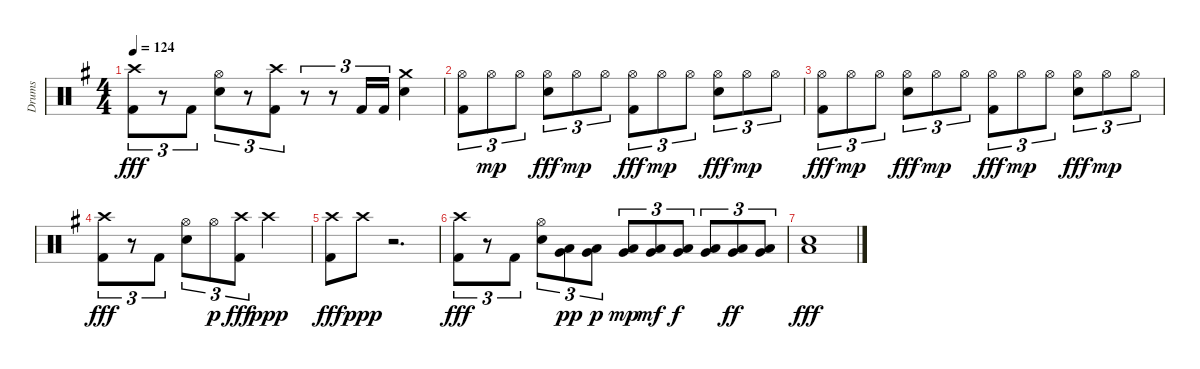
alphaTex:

\track ("Drums" "Drums") {instrument percussion}
\staff {score}
\articulation defaults
\ts (4 4)
\tempo 124
\clef neutral
\ks g
("Crash high (hit)" "Kick (hit) 2").8{tu (3 2) dy fff} r.8{tu (3 2)} "Kick (hit) 2".8{tu (3 2)} ("Hi-Hat (open)" "Electric Snare (hit)").8{tu (3 2)} r.8{tu (3 2)} ("Crash high (hit)" "Kick (hit) 2").8{tu (3 2)} r.8{tu (3 2)} r.8{tu (3 2)} "Kick (hit) 2".16{tu (3 2)} "Kick (hit) 2".16{tu (3 2)} ("Crash medium (hit)" "Electric Snare (hit)").4 |
("Hi-Hat (open)" "Kick (hit) 2").8{tu (3 2)} "Hi-Hat (open)".8{tu (3 2) dy mp} "Hi-Hat (open)".8{tu (3 2)} ("Hi-Hat (open)" "Electric Snare (hit)").8{tu (3 2) dy fff} "Hi-Hat (open)".8{tu (3 2) dy mp} "Hi-Hat (open)".8{tu (3 2)} ("Hi-Hat (open)" "Kick (hit) 2").8{tu (3 2) dy fff} "Hi-Hat (open)".8{tu (3 2) dy mp} "Hi-Hat (open)".8{tu (3 2)} ("Hi-Hat (open)" "Electric Snare (hit)").8{tu (3 2) dy fff} "Hi-Hat (open)".8{tu (3 2) dy mp} "Hi-Hat (open)".8{tu (3 2)} |
("Hi-Hat (open)" "Kick (hit) 2").8{tu (3 2) dy fff} "Hi-Hat (open)".8{tu (3 2) dy mp} "Hi-Hat (open)".8{tu (3 2)} ("Hi-Hat (open)" "Electric Snare (hit)").8{tu (3 2) dy fff} "Hi-Hat (open)".8{tu (3 2) dy mp} "Hi-Hat (open)".8{tu (3 2)} ("Hi-Hat (open)" "Kick (hit) 2").8{tu (3 2) dy fff} "Hi-Hat (open)".8{tu (3 2) dy mp} "Hi-Hat (open)".8{tu (3 2)} ("Hi-Hat (open)" "Electric Snare (hit)").8{tu (3 2) dy fff} "Hi-Hat (open)".8{tu (3 2) dy mp} "Hi-Hat (open)".8{tu (3 2)} |
("Crash high (hit)" "Kick (hit) 2").8{tu (3 2) dy fff} r.8{tu (3 2)} "Kick (hit) 2".8{tu (3 2)} ("Hi-Hat (open)" "Electric Snare (hit)").8{tu (3 2)} "Hi-Hat (open)".8{tu (3 2) dy p} ("Crash high (hit)" "Kick (hit) 2").8{tu (3 2) dy fff} "Crash high (hit)".2{dy ppp} |
("Crash high (hit)" "Kick (hit) 2").8{dy fff} "Crash high (hit)".8{dy ppp} r.2{d} |
("Crash high (hit)" "Kick (hit) 2").8{tu (3 2) dy fff} r.8{tu (3 2)} "Kick (hit) 2".8{tu (3 2)} ("Hi-Hat (open)" "Electric Snare (hit)").8{tu (3 2)} ("Very Low Tom (hit)" "Low Floor Tom (hit)").8{tu (3 2) dy pp} ("Very Low Tom (hit)" "Low Floor Tom (hit)").8{tu (3 2) dy p} ("Very Low Tom (hit)" "Low Floor Tom (hit)").8{tu (3 2) dy mp} ("Very Low Tom (hit)" "Low Floor Tom (hit)").8{tu (3 2) dy mf} ("Very Low Tom (hit)" "Low Floor Tom (hit)").8{tu (3 2) dy f} ("Very Low Tom (hit)" "Low Floor Tom (hit)").8{tu (3 2)} ("Very Low Tom (hit)" "Low Floor Tom (hit)").8{tu (3 2) dy ff} ("Very Low Tom (hit)" "Low Floor Tom (hit)").8{tu (3 2)} |
("Low Tom (hit)" "Electric Snare (hit)").1{dy fff}
